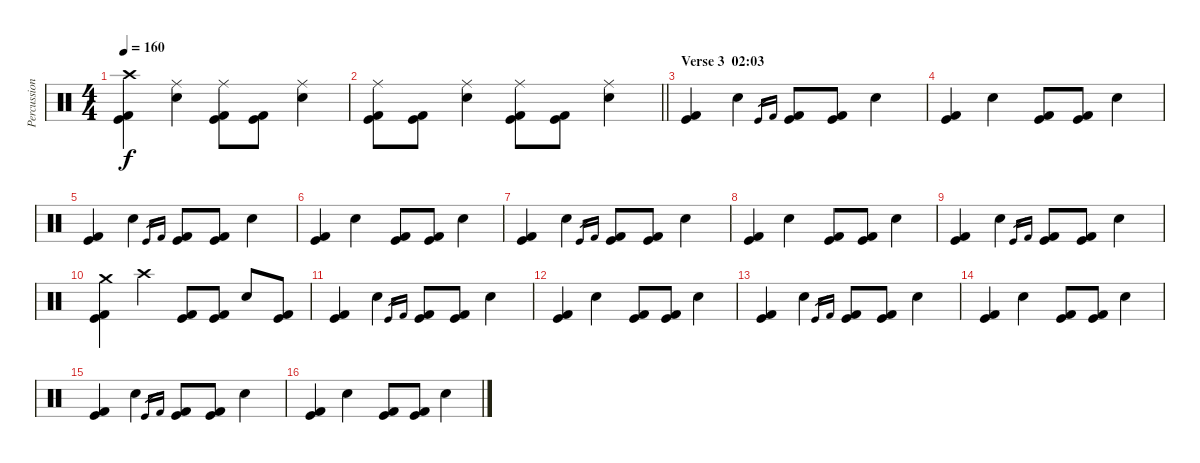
\track ("Percussion" "Percussion") {instrument percussion}
\staff {score}
\articulation defaults
\ts (4 4)
\tempo 160
\clef neutral
\ks c
("Crash high (hit)" "Kick (hit)" "Kick (hit) 2").4{dy f} ("Ride (middle)" "Electric Snare (hit)").4 ("Ride (middle)" "Kick (hit)" "Kick (hit) 2").8 ("Kick (hit)" "Kick (hit) 2").8 ("Ride (middle)" "Electric Snare (hit)").4 |
\barLineRight lightlight
("Ride (middle)" "Kick (hit)" "Kick (hit) 2").8 ("Kick (hit)" "Kick (hit) 2").8 ("Ride (middle)" "Electric Snare (hit)").4 ("Ride (middle)" "Kick (hit)" "Kick (hit) 2").8 ("Kick (hit)" "Kick (hit) 2").8 ("Ride (middle)" "Electric Snare (hit)").4 |
\section ("" "Verse 3  02:03")
("Kick (hit)" "Kick (hit) 2").4 "Electric Snare (hit)".4 "Kick (hit)".16{gr} "Kick (hit) 2".16{gr} ("Kick (hit)" "Kick (hit) 2").8 ("Kick (hit)" "Kick (hit) 2").8 "Electric Snare (hit)".4 |
("Kick (hit)" "Kick (hit) 2").4 "Electric Snare (hit)".4 ("Kick (hit)" "Kick (hit) 2").8 ("Kick (hit)" "Kick (hit) 2").8 "Electric Snare (hit)".4 |
("Kick (hit)" "Kick (hit) 2").4 "Electric Snare (hit)".4 "Kick (hit)".16{gr} "Kick (hit) 2".16{gr} ("Kick (hit)" "Kick (hit) 2").8 ("Kick (hit)" "Kick (hit) 2").8 "Electric Snare (hit)".4 |
("Kick (hit)" "Kick (hit) 2").4 "Electric Snare (hit)".4 ("Kick (hit)" "Kick (hit) 2").8 ("Kick (hit)" "Kick (hit) 2").8 "Electric Snare (hit)".4 |
("Kick (hit)" "Kick (hit) 2").4 "Electric Snare (hit)".4 "Kick (hit)".16{gr} "Kick (hit) 2".16{gr} ("Kick (hit)" "Kick (hit) 2").8 ("Kick (hit)" "Kick (hit) 2").8 "Electric Snare (hit)".4 |
("Kick (hit)" "Kick (hit) 2").4 "Electric Snare (hit)".4 ("Kick (hit)" "Kick (hit) 2").8 ("Kick (hit)" "Kick (hit) 2").8 "Electric Snare (hit)".4 |
("Kick (hit)" "Kick (hit) 2").4 "Electric Snare (hit)".4 "Kick (hit)".16{gr} "Kick (hit) 2".16{gr} ("Kick (hit)" "Kick (hit) 2").8 ("Kick (hit)" "Kick (hit) 2").8 "Electric Snare (hit)".4 |
("Crash medium (hit)" "Kick (hit)" "Kick (hit) 2").4 "Crash high (hit)".4 ("Kick (hit)" "Kick (hit) 2").8 ("Kick (hit)" "Kick (hit) 2").8 "Electric Snare (hit)".8 ("Kick (hit)" "Kick (hit) 2").8 |
("Kick (hit)" "Kick (hit) 2").4 "Electric Snare (hit)".4 "Kick (hit)".16{gr} "Kick (hit) 2".16{gr} ("Kick (hit)" "Kick (hit) 2").8 ("Kick (hit)" "Kick (hit) 2").8 "Electric Snare (hit)".4 |
("Kick (hit)" "Kick (hit) 2").4 "Electric Snare (hit)".4 ("Kick (hit)" "Kick (hit) 2").8 ("Kick (hit)" "Kick (hit) 2").8 "Electric Snare (hit)".4 |
("Kick (hit)" "Kick (hit) 2").4 "Electric Snare (hit)".4 "Kick (hit)".16{gr} "Kick (hit) 2".16{gr} ("Kick (hit)" "Kick (hit) 2").8 ("Kick (hit)" "Kick (hit) 2").8 "Electric Snare (hit)".4 |
("Kick (hit)" "Kick (hit) 2").4 "Electric Snare (hit)".4 ("Kick (hit)" "Kick (hit) 2").8 ("Kick (hit)" "Kick (hit) 2").8 "Electric Snare (hit)".4 |
("Kick (hit)" "Kick (hit) 2").4 "Electric Snare (hit)".4 "Kick (hit)".16{gr} "Kick (hit) 2".16{gr} ("Kick (hit)" "Kick (hit) 2").8 ("Kick (hit)" "Kick (hit) 2").8 "Electric Snare (hit)".4 |
("Kick (hit)" "Kick (hit) 2").4 "Electric Snare (hit)".4 ("Kick (hit)" "Kick (hit) 2").8 ("Kick (hit)" "Kick (hit) 2").8 "Electric Snare (hit)".4
